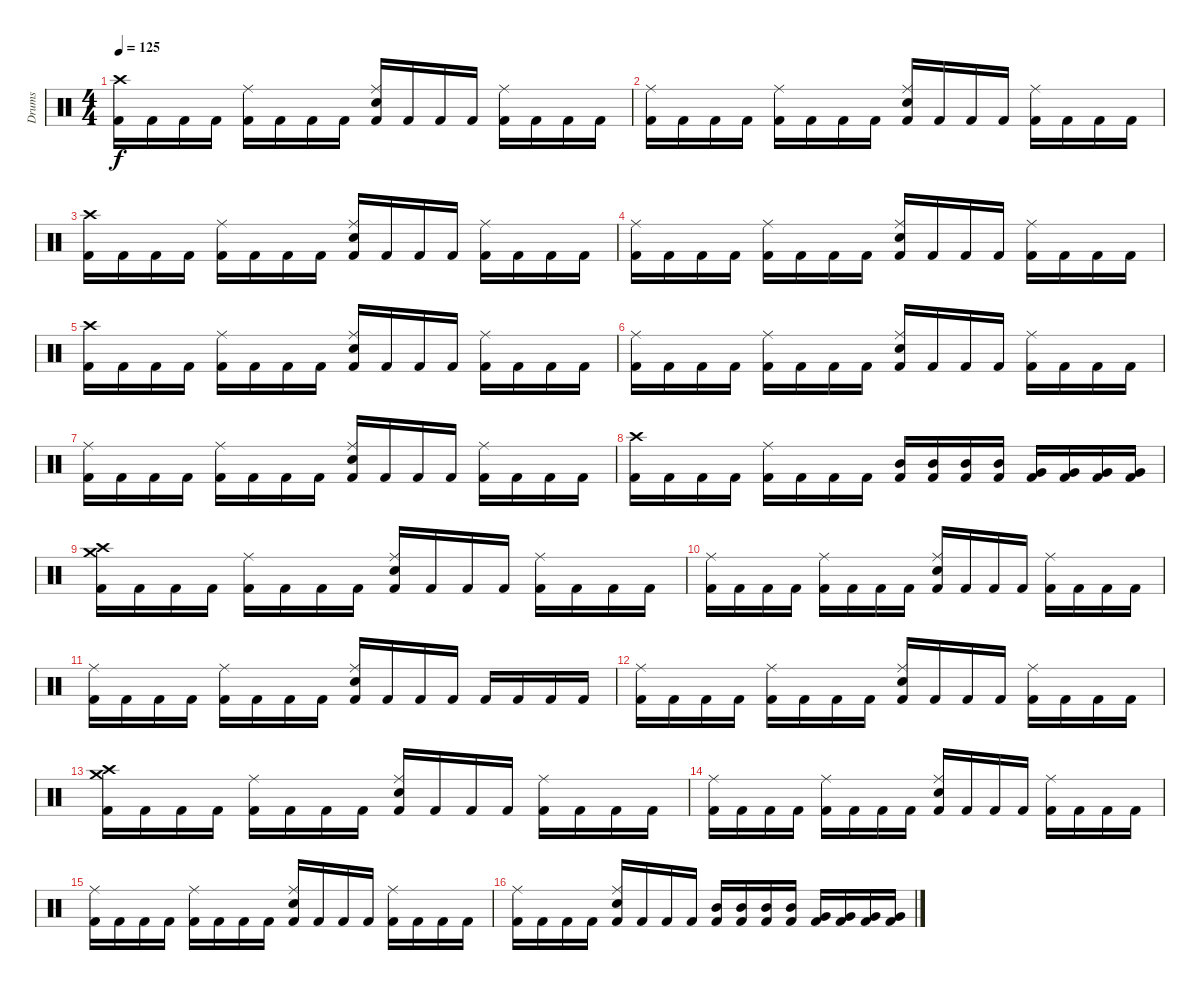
\track ("Drums" "Drums") {instrument percussion}
\staff {score}
\articulation defaults
\ts (4 4)
\tempo 125
\clef neutral
\ks c
("Crash high (hit)" "Kick (hit) 2").16{dy f} "Kick (hit) 2".16 "Kick (hit) 2".16 "Kick (hit) 2".16 ("Ride (middle)" "Kick (hit) 2").16 "Kick (hit) 2".16 "Kick (hit) 2".16 "Kick (hit) 2".16 ("Ride (middle)" "Electric Snare (hit)" "Kick (hit) 2").16 "Kick (hit) 2".16 "Kick (hit) 2".16 "Kick (hit) 2".16 ("Ride (middle)" "Kick (hit) 2").16 "Kick (hit) 2".16 "Kick (hit) 2".16 "Kick (hit) 2".16 |
("Ride (middle)" "Kick (hit) 2").16 "Kick (hit) 2".16 "Kick (hit) 2".16 "Kick (hit) 2".16 ("Ride (middle)" "Kick (hit) 2").16 "Kick (hit) 2".16 "Kick (hit) 2".16 "Kick (hit) 2".16 ("Ride (middle)" "Electric Snare (hit)" "Kick (hit) 2").16 "Kick (hit) 2".16 "Kick (hit) 2".16 "Kick (hit) 2".16 ("Ride (middle)" "Kick (hit) 2").16 "Kick (hit) 2".16 "Kick (hit) 2".16 "Kick (hit) 2".16 |
("Crash high (hit)" "Kick (hit) 2").16 "Kick (hit) 2".16 "Kick (hit) 2".16 "Kick (hit) 2".16 ("Ride (middle)" "Kick (hit) 2").16 "Kick (hit) 2".16 "Kick (hit) 2".16 "Kick (hit) 2".16 ("Ride (middle)" "Electric Snare (hit)" "Kick (hit) 2").16 "Kick (hit) 2".16 "Kick (hit) 2".16 "Kick (hit) 2".16 ("Ride (middle)" "Kick (hit) 2").16 "Kick (hit) 2".16 "Kick (hit) 2".16 "Kick (hit) 2".16 |
("Ride (middle)" "Kick (hit) 2").16 "Kick (hit) 2".16 "Kick (hit) 2".16 "Kick (hit) 2".16 ("Ride (middle)" "Kick (hit) 2").16 "Kick (hit) 2".16 "Kick (hit) 2".16 "Kick (hit) 2".16 ("Ride (middle)" "Electric Snare (hit)" "Kick (hit) 2").16 "Kick (hit) 2".16 "Kick (hit) 2".16 "Kick (hit) 2".16 ("Ride (middle)" "Kick (hit) 2").16 "Kick (hit) 2".16 "Kick (hit) 2".16 "Kick (hit) 2".16 |
("Crash high (hit)" "Kick (hit) 2").16 "Kick (hit) 2".16 "Kick (hit) 2".16 "Kick (hit) 2".16 ("Ride (middle)" "Kick (hit) 2").16 "Kick (hit) 2".16 "Kick (hit) 2".16 "Kick (hit) 2".16 ("Ride (middle)" "Electric Snare (hit)" "Kick (hit) 2").16 "Kick (hit) 2".16 "Kick (hit) 2".16 "Kick (hit) 2".16 ("Ride (middle)" "Kick (hit) 2").16 "Kick (hit) 2".16 "Kick (hit) 2".16 "Kick (hit) 2".16 |
("Ride (middle)" "Kick (hit) 2").16 "Kick (hit) 2".16 "Kick (hit) 2".16 "Kick (hit) 2".16 ("Ride (middle)" "Kick (hit) 2").16 "Kick (hit) 2".16 "Kick (hit) 2".16 "Kick (hit) 2".16 ("Ride (middle)" "Electric Snare (hit)" "Kick (hit) 2").16 "Kick (hit) 2".16 "Kick (hit) 2".16 "Kick (hit) 2".16 ("Ride (middle)" "Kick (hit) 2").16 "Kick (hit) 2".16 "Kick (hit) 2".16 "Kick (hit) 2".16 |
("Ride (middle)" "Kick (hit) 2").16 "Kick (hit) 2".16 "Kick (hit) 2".16 "Kick (hit) 2".16 ("Ride (middle)" "Kick (hit) 2").16 "Kick (hit) 2".16 "Kick (hit) 2".16 "Kick (hit) 2".16 ("Ride (middle)" "Electric Snare (hit)" "Kick (hit) 2").16 "Kick (hit) 2".16 "Kick (hit) 2".16 "Kick (hit) 2".16 ("Ride (middle)" "Kick (hit) 2").16 "Kick (hit) 2".16 "Kick (hit) 2".16 "Kick (hit) 2".16 |
("Crash high (hit)" "Kick (hit) 2").16 "Kick (hit) 2".16 "Kick (hit) 2".16 "Kick (hit) 2".16 ("Ride (middle)" "Kick (hit) 2").16 "Kick (hit) 2".16 "Kick (hit) 2".16 "Kick (hit) 2".16 ("Mid Tom (hit)" "Kick (hit) 2").16 ("Mid Tom (hit)" "Kick (hit) 2").16 ("Mid Tom (hit)" "Kick (hit) 2").16 ("Mid Tom (hit)" "Kick (hit) 2").16 ("Very Low Tom (hit)" "Kick (hit) 2").16 ("Very Low Tom (hit)" "Kick (hit) 2").16 ("Very Low Tom (hit)" "Kick (hit) 2").16 ("Very Low Tom (hit)" "Kick (hit) 2").16 |
("Crash high (hit)" "Crash medium (hit)" "Kick (hit) 2").16 "Kick (hit) 2".16 "Kick (hit) 2".16 "Kick (hit) 2".16 ("Ride (middle)" "Kick (hit) 2").16 "Kick (hit) 2".16 "Kick (hit) 2".16 "Kick (hit) 2".16 ("Ride (middle)" "Electric Snare (hit)" "Kick (hit) 2").16 "Kick (hit) 2".16 "Kick (hit) 2".16 "Kick (hit) 2".16 ("Ride (middle)" "Kick (hit) 2").16 "Kick (hit) 2".16 "Kick (hit) 2".16 "Kick (hit) 2".16 |
("Ride (middle)" "Kick (hit) 2").16 "Kick (hit) 2".16 "Kick (hit) 2".16 "Kick (hit) 2".16 ("Ride (middle)" "Kick (hit) 2").16 "Kick (hit) 2".16 "Kick (hit) 2".16 "Kick (hit) 2".16 ("Ride (middle)" "Electric Snare (hit)" "Kick (hit) 2").16 "Kick (hit) 2".16 "Kick (hit) 2".16 "Kick (hit) 2".16 ("Ride (middle)" "Kick (hit) 2").16 "Kick (hit) 2".16 "Kick (hit) 2".16 "Kick (hit) 2".16 |
("Ride (middle)" "Kick (hit) 2").16 "Kick (hit) 2".16 "Kick (hit) 2".16 "Kick (hit) 2".16 ("Ride (middle)" "Kick (hit) 2").16 "Kick (hit) 2".16 "Kick (hit) 2".16 "Kick (hit) 2".16 ("Ride (middle)" "Electric Snare (hit)" "Kick (hit) 2").16 "Kick (hit) 2".16 "Kick (hit) 2".16 "Kick (hit) 2".16 "Kick (hit) 2".16 "Kick (hit) 2".16 "Kick (hit) 2".16 "Kick (hit) 2".16 |
("Ride (middle)" "Kick (hit) 2").16 "Kick (hit) 2".16 "Kick (hit) 2".16 "Kick (hit) 2".16 ("Ride (middle)" "Kick (hit) 2").16 "Kick (hit) 2".16 "Kick (hit) 2".16 "Kick (hit) 2".16 ("Ride (middle)" "Electric Snare (hit)" "Kick (hit) 2").16 "Kick (hit) 2".16 "Kick (hit) 2".16 "Kick (hit) 2".16 ("Ride (middle)" "Kick (hit) 2").16 "Kick (hit) 2".16 "Kick (hit) 2".16 "Kick (hit) 2".16 |
("Crash high (hit)" "Crash medium (hit)" "Kick (hit) 2").16 "Kick (hit) 2".16 "Kick (hit) 2".16 "Kick (hit) 2".16 ("Ride (middle)" "Kick (hit) 2").16 "Kick (hit) 2".16 "Kick (hit) 2".16 "Kick (hit) 2".16 ("Ride (middle)" "Electric Snare (hit)" "Kick (hit) 2").16 "Kick (hit) 2".16 "Kick (hit) 2".16 "Kick (hit) 2".16 ("Ride (middle)" "Kick (hit) 2").16 "Kick (hit) 2".16 "Kick (hit) 2".16 "Kick (hit) 2".16 |
("Ride (middle)" "Kick (hit) 2").16 "Kick (hit) 2".16 "Kick (hit) 2".16 "Kick (hit) 2".16 ("Ride (middle)" "Kick (hit) 2").16 "Kick (hit) 2".16 "Kick (hit) 2".16 "Kick (hit) 2".16 ("Ride (middle)" "Electric Snare (hit)" "Kick (hit) 2").16 "Kick (hit) 2".16 "Kick (hit) 2".16 "Kick (hit) 2".16 ("Ride (middle)" "Kick (hit) 2").16 "Kick (hit) 2".16 "Kick (hit) 2".16 "Kick (hit) 2".16 |
("Ride (middle)" "Kick (hit) 2").16 "Kick (hit) 2".16 "Kick (hit) 2".16 "Kick (hit) 2".16 ("Ride (middle)" "Kick (hit) 2").16 "Kick (hit) 2".16 "Kick (hit) 2".16 "Kick (hit) 2".16 ("Ride (middle)" "Electric Snare (hit)" "Kick (hit) 2").16 "Kick (hit) 2".16 "Kick (hit) 2".16 "Kick (hit) 2".16 ("Ride (middle)" "Kick (hit) 2").16 "Kick (hit) 2".16 "Kick (hit) 2".16 "Kick (hit) 2".16 |
("Ride (middle)" "Kick (hit) 2").16 "Kick (hit) 2".16 "Kick (hit) 2".16 "Kick (hit) 2".16 ("Ride (middle)" "Electric Snare (hit)" "Kick (hit) 2").16 "Kick (hit) 2".16 "Kick (hit) 2".16 "Kick (hit) 2".16 ("Mid Tom (hit)" "Kick (hit) 2").16 ("Mid Tom (hit)" "Kick (hit) 2").16 ("Mid Tom (hit)" "Kick (hit) 2").16 ("Mid Tom (hit)" "Kick (hit) 2").16 ("Very Low Tom (hit)" "Kick (hit) 2").16 ("Very Low Tom (hit)" "Kick (hit) 2").16 ("Very Low Tom (hit)" "Kick (hit) 2").16 ("Very Low Tom (hit)" "Kick (hit) 2").16
